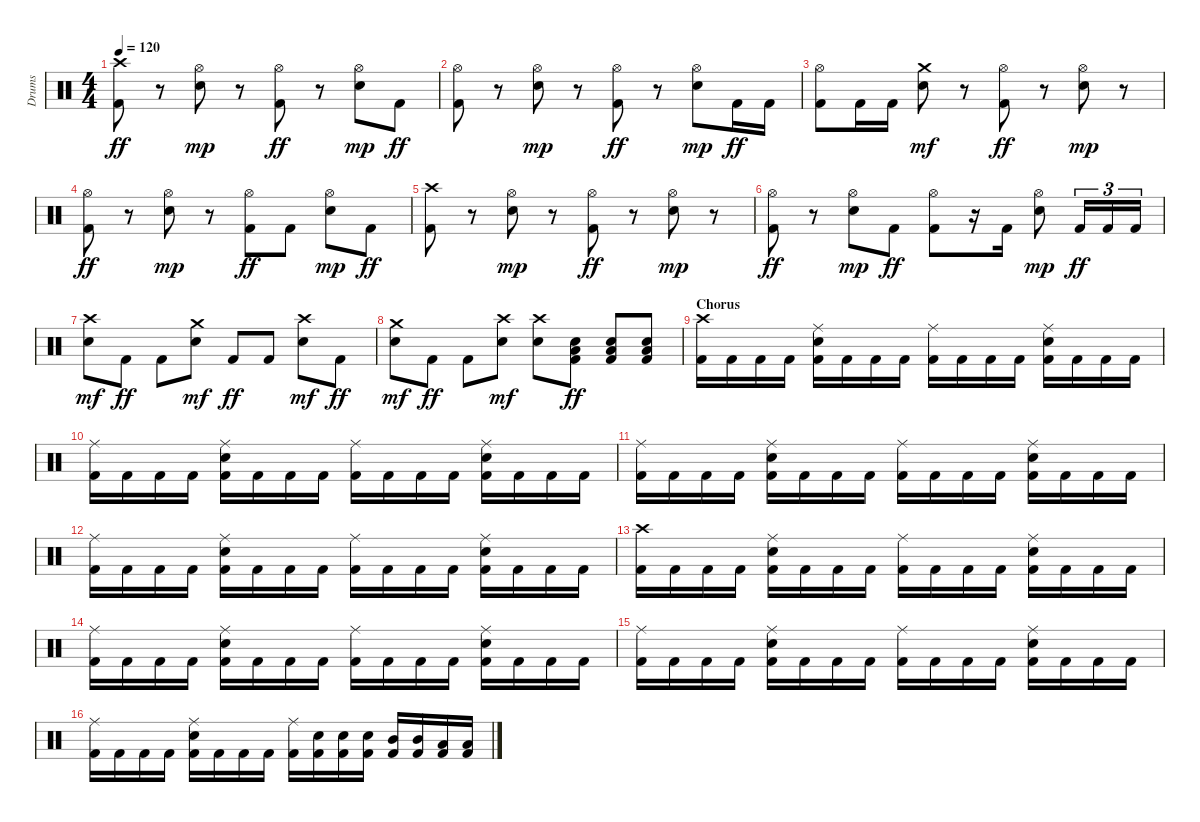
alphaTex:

\track ("Drums" "Drums") {instrument percussion}
\staff {score}
\articulation defaults
\ts (4 4)
\tempo 120
\clef neutral
\ks c
("Crash high (hit)" "Kick (hit) 2").8{dy ff} r.8 ("Hi-Hat (open)" "Electric Snare (hit)").8{dy mp} r.8 ("Hi-Hat (open)" "Kick (hit) 2").8{dy ff} r.8 ("Hi-Hat (open)" "Electric Snare (hit)").8{dy mp} "Kick (hit) 2".8{dy ff} |
("Hi-Hat (open)" "Kick (hit) 2").8 r.8 ("Hi-Hat (open)" "Electric Snare (hit)").8{dy mp} r.8 ("Hi-Hat (open)" "Kick (hit) 2").8{dy ff} r.8 ("Hi-Hat (open)" "Electric Snare (hit)").8{dy mp} "Kick (hit) 2".16{dy ff} "Kick (hit) 2".16 |
("Hi-Hat (open)" "Kick (hit) 2").8 "Kick (hit) 2".16 "Kick (hit) 2".16 ("Crash medium (hit)" "Electric Snare (hit)").8{dy mf} r.8 ("Hi-Hat (open)" "Kick (hit) 2").8{dy ff} r.8 ("Hi-Hat (open)" "Electric Snare (hit)").8{dy mp} r.8 |
("Hi-Hat (open)" "Kick (hit) 2").8{dy ff} r.8 ("Hi-Hat (open)" "Electric Snare (hit)").8{dy mp} r.8 ("Hi-Hat (open)" "Kick (hit) 2").8{dy ff} "Kick (hit) 2".8 ("Hi-Hat (open)" "Electric Snare (hit)").8{dy mp} "Kick (hit) 2".8{dy ff} |
("Crash high (hit)" "Kick (hit) 2").8 r.8 ("Hi-Hat (open)" "Electric Snare (hit)").8{dy mp} r.8 ("Hi-Hat (open)" "Kick (hit) 2").8{dy ff} r.8 ("Hi-Hat (open)" "Electric Snare (hit)").8{dy mp} r.8 |
("Hi-Hat (open)" "Kick (hit) 2").8{dy ff} r.8 ("Hi-Hat (open)" "Electric Snare (hit)").8{dy mp} "Kick (hit) 2".8{dy ff} ("Hi-Hat (open)" "Kick (hit) 2").8 r.16 "Kick (hit) 2".16 ("Hi-Hat (open)" "Electric Snare (hit)").8{dy mp} "Kick (hit) 2".16{tu (3 2) dy ff} "Kick (hit) 2".16{tu (3 2)} "Kick (hit) 2".16{tu (3 2)} |
("Crash high (hit)" "Electric Snare (hit)").8{dy mf} "Kick (hit) 2".8{dy ff} "Kick (hit) 2".8 ("Crash medium (hit)" "Electric Snare (hit)").8{dy mf} "Kick (hit) 2".8{dy ff} "Kick (hit) 2".8 ("Crash high (hit)" "Electric Snare (hit)").8{dy mf} "Kick (hit) 2".8{dy ff} |
("Crash medium (hit)" "Electric Snare (hit)").8{dy mf} "Kick (hit) 2".8{dy ff} "Kick (hit) 2".8 ("Crash high (hit)" "Electric Snare (hit)").8{dy mf} ("Crash high (hit)" "Electric Snare (hit)").8 ("Low Tom (hit)" "Electric Snare (hit)" "Kick (hit) 2").8{dy ff} ("Low Tom (hit)" "Electric Snare (hit)" "Kick (hit) 2").8 ("Low Tom (hit)" "Electric Snare (hit)" "Kick (hit) 2").8 |
\section ("" "Chorus")
("Crash high (hit)" "Kick (hit) 2").16 "Kick (hit) 2".16 "Kick (hit) 2".16 "Kick (hit) 2".16 ("Ride (middle)" "Electric Snare (hit)" "Kick (hit) 2").16 "Kick (hit) 2".16 "Kick (hit) 2".16 "Kick (hit) 2".16 ("Ride (middle)" "Kick (hit) 2").16 "Kick (hit) 2".16 "Kick (hit) 2".16 "Kick (hit) 2".16 ("Ride (middle)" "Electric Snare (hit)" "Kick (hit) 2").16 "Kick (hit) 2".16 "Kick (hit) 2".16 "Kick (hit) 2".16 |
("Ride (middle)" "Kick (hit) 2").16 "Kick (hit) 2".16 "Kick (hit) 2".16 "Kick (hit) 2".16 ("Ride (middle)" "Electric Snare (hit)" "Kick (hit) 2").16 "Kick (hit) 2".16 "Kick (hit) 2".16 "Kick (hit) 2".16 ("Ride (middle)" "Kick (hit) 2").16 "Kick (hit) 2".16 "Kick (hit) 2".16 "Kick (hit) 2".16 ("Ride (middle)" "Electric Snare (hit)" "Kick (hit) 2").16 "Kick (hit) 2".16 "Kick (hit) 2".16 "Kick (hit) 2".16 |
("Ride (middle)" "Kick (hit) 2").16 "Kick (hit) 2".16 "Kick (hit) 2".16 "Kick (hit) 2".16 ("Ride (middle)" "Electric Snare (hit)" "Kick (hit) 2").16 "Kick (hit) 2".16 "Kick (hit) 2".16 "Kick (hit) 2".16 ("Ride (middle)" "Kick (hit) 2").16 "Kick (hit) 2".16 "Kick (hit) 2".16 "Kick (hit) 2".16 ("Ride (middle)" "Electric Snare (hit)" "Kick (hit) 2").16 "Kick (hit) 2".16 "Kick (hit) 2".16 "Kick (hit) 2".16 |
("Ride (middle)" "Kick (hit) 2").16 "Kick (hit) 2".16 "Kick (hit) 2".16 "Kick (hit) 2".16 ("Ride (middle)" "Electric Snare (hit)" "Kick (hit) 2").16 "Kick (hit) 2".16 "Kick (hit) 2".16 "Kick (hit) 2".16 ("Ride (middle)" "Kick (hit) 2").16 "Kick (hit) 2".16 "Kick (hit) 2".16 "Kick (hit) 2".16 ("Ride (middle)" "Electric Snare (hit)" "Kick (hit) 2").16 "Kick (hit) 2".16 "Kick (hit) 2".16 "Kick (hit) 2".16 |
("Crash high (hit)" "Kick (hit) 2").16 "Kick (hit) 2".16 "Kick (hit) 2".16 "Kick (hit) 2".16 ("Ride (middle)" "Electric Snare (hit)" "Kick (hit) 2").16 "Kick (hit) 2".16 "Kick (hit) 2".16 "Kick (hit) 2".16 ("Ride (middle)" "Kick (hit) 2").16 "Kick (hit) 2".16 "Kick (hit) 2".16 "Kick (hit) 2".16 ("Ride (middle)" "Electric Snare (hit)" "Kick (hit) 2").16 "Kick (hit) 2".16 "Kick (hit) 2".16 "Kick (hit) 2".16 |
("Ride (middle)" "Kick (hit) 2").16 "Kick (hit) 2".16 "Kick (hit) 2".16 "Kick (hit) 2".16 ("Ride (middle)" "Electric Snare (hit)" "Kick (hit) 2").16 "Kick (hit) 2".16 "Kick (hit) 2".16 "Kick (hit) 2".16 ("Ride (middle)" "Kick (hit) 2").16 "Kick (hit) 2".16 "Kick (hit) 2".16 "Kick (hit) 2".16 ("Ride (middle)" "Electric Snare (hit)" "Kick (hit) 2").16 "Kick (hit) 2".16 "Kick (hit) 2".16 "Kick (hit) 2".16 |
("Ride (middle)" "Kick (hit) 2").16 "Kick (hit) 2".16 "Kick (hit) 2".16 "Kick (hit) 2".16 ("Ride (middle)" "Electric Snare (hit)" "Kick (hit) 2").16 "Kick (hit) 2".16 "Kick (hit) 2".16 "Kick (hit) 2".16 ("Ride (middle)" "Kick (hit) 2").16 "Kick (hit) 2".16 "Kick (hit) 2".16 "Kick (hit) 2".16 ("Ride (middle)" "Electric Snare (hit)" "Kick (hit) 2").16 "Kick (hit) 2".16 "Kick (hit) 2".16 "Kick (hit) 2".16 |
("Ride (middle)" "Kick (hit) 2").16 "Kick (hit) 2".16 "Kick (hit) 2".16 "Kick (hit) 2".16 ("Ride (middle)" "Electric Snare (hit)" "Kick (hit) 2").16 "Kick (hit) 2".16 "Kick (hit) 2".16 "Kick (hit) 2".16 ("Ride (middle)" "Kick (hit) 2").16 ("Electric Snare (hit)" "Kick (hit) 2").16 ("Electric Snare (hit)" "Kick (hit) 2").16 ("Electric Snare (hit)" "Kick (hit) 2").16 ("Mid Tom (hit)" "Kick (hit) 2").16 ("Mid Tom (hit)" "Kick (hit) 2").16 ("Low Tom (hit)" "Kick (hit) 2").16 ("Low Tom (hit)" "Kick (hit) 2").16
